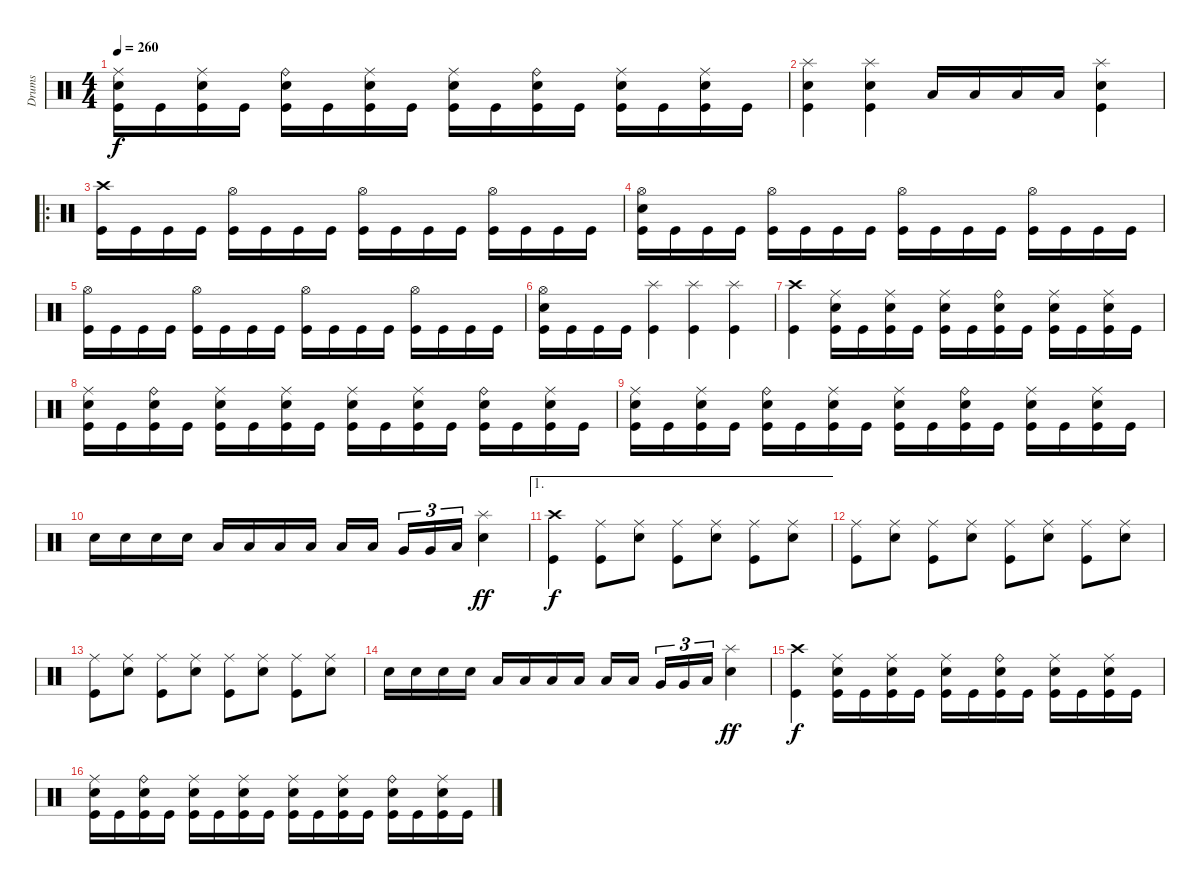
\track ("Drums" "Drums") {instrument percussion}
\staff {score}
\articulation defaults
\ts (4 4)
\tempo 260
\clef neutral
\ks c
("Ride (middle)" "Electric Snare (hit)" "Kick (hit)").16{dy f} "Kick (hit)".16 ("Ride (middle)" "Electric Snare (hit)" "Kick (hit)").16 "Kick (hit)".16 ("Ride (bell)" "Electric Snare (hit)" "Kick (hit)").16 "Kick (hit)".16 ("Ride (middle)" "Electric Snare (hit)" "Kick (hit)").16 "Kick (hit)".16 ("Ride (middle)" "Electric Snare (hit)" "Kick (hit)").16 "Kick (hit)".16 ("Ride (bell)" "Electric Snare (hit)" "Kick (hit)").16 "Kick (hit)".16 ("Ride (middle)" "Electric Snare (hit)" "Kick (hit)").16 "Kick (hit)".16 ("Ride (middle)" "Electric Snare (hit)" "Kick (hit)").16 "Kick (hit)".16 |
("Splash (hit)" "Electric Snare (hit)" "Kick (hit)").4 ("Splash (hit)" "Electric Snare (hit)" "Kick (hit)").4 "Low Tom (hit)".16 "Low Tom (hit)".16 "Low Tom (hit)".16 "Low Tom (hit)".16 ("Splash (hit)" "Electric Snare (hit)" "Kick (hit)").4 |
\ro
("Crash high (hit)" "Kick (hit)").16 "Kick (hit)".16 "Kick (hit)".16 "Kick (hit)".16 ("Hi-Hat (open)" "Kick (hit)").16 "Kick (hit)".16 "Kick (hit)".16 "Kick (hit)".16 ("Hi-Hat (open)" "Kick (hit)").16 "Kick (hit)".16 "Kick (hit)".16 "Kick (hit)".16 ("Hi-Hat (open)" "Kick (hit)").16 "Kick (hit)".16 "Kick (hit)".16 "Kick (hit)".16 |
("Hi-Hat (open)" "Electric Snare (hit)" "Kick (hit)").16 "Kick (hit)".16 "Kick (hit)".16 "Kick (hit)".16 ("Hi-Hat (open)" "Kick (hit)").16 "Kick (hit)".16 "Kick (hit)".16 "Kick (hit)".16 ("Hi-Hat (open)" "Kick (hit)").16 "Kick (hit)".16 "Kick (hit)".16 "Kick (hit)".16 ("Hi-Hat (open)" "Kick (hit)").16 "Kick (hit)".16 "Kick (hit)".16 "Kick (hit)".16 |
("Hi-Hat (open)" "Kick (hit)").16 "Kick (hit)".16 "Kick (hit)".16 "Kick (hit)".16 ("Hi-Hat (open)" "Kick (hit)").16 "Kick (hit)".16 "Kick (hit)".16 "Kick (hit)".16 ("Hi-Hat (open)" "Kick (hit)").16 "Kick (hit)".16 "Kick (hit)".16 "Kick (hit)".16 ("Hi-Hat (open)" "Kick (hit)").16 "Kick (hit)".16 "Kick (hit)".16 "Kick (hit)".16 |
("Hi-Hat (open)" "Electric Snare (hit)" "Kick (hit)").16 "Kick (hit)".16 "Kick (hit)".16 "Kick (hit)".16 ("Splash (hit)" "Kick (hit)").4 ("Splash (hit)" "Kick (hit)").4 ("Splash (hit)" "Kick (hit)").4 |
("Crash high (hit)" "Kick (hit)").4 ("Ride (middle)" "Electric Snare (hit)" "Kick (hit)").16 "Kick (hit)".16 ("Ride (middle)" "Electric Snare (hit)" "Kick (hit)").16 "Kick (hit)".16 ("Ride (middle)" "Electric Snare (hit)" "Kick (hit)").16 "Kick (hit)".16 ("Ride (bell)" "Electric Snare (hit)" "Kick (hit)").16 "Kick (hit)".16 ("Ride (middle)" "Electric Snare (hit)" "Kick (hit)").16 "Kick (hit)".16 ("Ride (middle)" "Electric Snare (hit)" "Kick (hit)").16 "Kick (hit)".16 |
("Ride (middle)" "Electric Snare (hit)" "Kick (hit)").16 "Kick (hit)".16 ("Ride (bell)" "Electric Snare (hit)" "Kick (hit)").16 "Kick (hit)".16 ("Ride (middle)" "Electric Snare (hit)" "Kick (hit)").16 "Kick (hit)".16 ("Ride (middle)" "Electric Snare (hit)" "Kick (hit)").16 "Kick (hit)".16 ("Ride (middle)" "Electric Snare (hit)" "Kick (hit)").16 "Kick (hit)".16 ("Ride (middle)" "Electric Snare (hit)" "Kick (hit)").16 "Kick (hit)".16 ("Ride (bell)" "Electric Snare (hit)" "Kick (hit)").16 "Kick (hit)".16 ("Ride (middle)" "Electric Snare (hit)" "Kick (hit)").16 "Kick (hit)".16 |
("Ride (middle)" "Electric Snare (hit)" "Kick (hit)").16 "Kick (hit)".16 ("Ride (middle)" "Electric Snare (hit)" "Kick (hit)").16 "Kick (hit)".16 ("Ride (bell)" "Electric Snare (hit)" "Kick (hit)").16 "Kick (hit)".16 ("Ride (middle)" "Electric Snare (hit)" "Kick (hit)").16 "Kick (hit)".16 ("Ride (middle)" "Electric Snare (hit)" "Kick (hit)").16 "Kick (hit)".16 ("Ride (bell)" "Electric Snare (hit)" "Kick (hit)").16 "Kick (hit)".16 ("Ride (middle)" "Electric Snare (hit)" "Kick (hit)").16 "Kick (hit)".16 ("Ride (middle)" "Electric Snare (hit)" "Kick (hit)").16 "Kick (hit)".16 |
"Electric Snare (hit)".16 "Electric Snare (hit)".16 "Electric Snare (hit)".16 "Electric Snare (hit)".16 "Low Tom (hit)".16 "Low Tom (hit)".16 "Low Tom (hit)".16 "Low Tom (hit)".16 "Low Tom (hit)".16 "Low Tom (hit)".16 "Very Low Tom (hit)".16{tu (3 2)} "Very Low Tom (hit)".16{tu (3 2)} "Low Floor Tom (hit)".16{tu (3 2)} ("Splash (hit)" "Electric Snare (hit)").4{dy ff} |
\ae 1
("Crash high (hit)" "Kick (hit)").4{dy f} ("Ride (middle)" "Kick (hit)").8 ("Ride (middle)" "Electric Snare (hit)").8 ("Ride (middle)" "Kick (hit)").8 ("Ride (middle)" "Electric Snare (hit)").8 ("Ride (middle)" "Kick (hit)").8 ("Ride (middle)" "Electric Snare (hit)").8 |
("Ride (middle)" "Kick (hit)").8 ("Ride (middle)" "Electric Snare (hit)").8 ("Ride (middle)" "Kick (hit)").8 ("Ride (middle)" "Electric Snare (hit)").8 ("Ride (middle)" "Kick (hit)").8 ("Ride (middle)" "Electric Snare (hit)").8 ("Ride (middle)" "Kick (hit)").8 ("Ride (middle)" "Electric Snare (hit)").8 |
("Ride (middle)" "Kick (hit)").8 ("Ride (middle)" "Electric Snare (hit)").8 ("Ride (middle)" "Kick (hit)").8 ("Ride (middle)" "Electric Snare (hit)").8 ("Ride (middle)" "Kick (hit)").8 ("Ride (middle)" "Electric Snare (hit)").8 ("Ride (middle)" "Kick (hit)").8 ("Ride (middle)" "Electric Snare (hit)").8 |
"Electric Snare (hit)".16 "Electric Snare (hit)".16 "Electric Snare (hit)".16 "Electric Snare (hit)".16 "Low Tom (hit)".16 "Low Tom (hit)".16 "Low Tom (hit)".16 "Low Tom (hit)".16 "Low Tom (hit)".16 "Low Tom (hit)".16 "Very Low Tom (hit)".16{tu (3 2)} "Very Low Tom (hit)".16{tu (3 2)} "Low Floor Tom (hit)".16{tu (3 2)} ("Splash (hit)" "Electric Snare (hit)").4{dy ff} |
("Crash high (hit)" "Kick (hit)").4{dy f} ("Ride (middle)" "Electric Snare (hit)" "Kick (hit)").16 "Kick (hit)".16 ("Ride (middle)" "Electric Snare (hit)" "Kick (hit)").16 "Kick (hit)".16 ("Ride (middle)" "Electric Snare (hit)" "Kick (hit)").16 "Kick (hit)".16 ("Ride (bell)" "Electric Snare (hit)" "Kick (hit)").16 "Kick (hit)".16 ("Ride (middle)" "Electric Snare (hit)" "Kick (hit)").16 "Kick (hit)".16 ("Ride (middle)" "Electric Snare (hit)" "Kick (hit)").16 "Kick (hit)".16 |
("Ride (middle)" "Electric Snare (hit)" "Kick (hit)").16 "Kick (hit)".16 ("Ride (bell)" "Electric Snare (hit)" "Kick (hit)").16 "Kick (hit)".16 ("Ride (middle)" "Electric Snare (hit)" "Kick (hit)").16 "Kick (hit)".16 ("Ride (middle)" "Electric Snare (hit)" "Kick (hit)").16 "Kick (hit)".16 ("Ride (middle)" "Electric Snare (hit)" "Kick (hit)").16 "Kick (hit)".16 ("Ride (middle)" "Electric Snare (hit)" "Kick (hit)").16 "Kick (hit)".16 ("Ride (bell)" "Electric Snare (hit)" "Kick (hit)").16 "Kick (hit)".16 ("Ride (middle)" "Electric Snare (hit)" "Kick (hit)").16 "Kick (hit)".16
